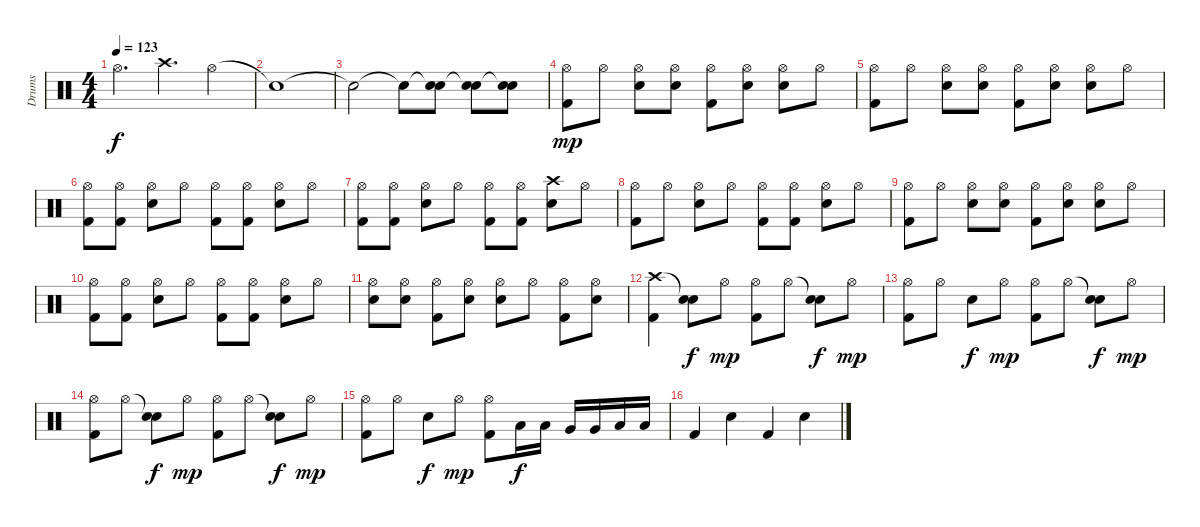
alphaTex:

\track ("Drums" "Drums") {instrument percussion}
\staff {score}
\articulation defaults
\ts (4 4)
\tempo 123
\clef neutral
\ks c "Hi-Hat (open)".4{d dy f} "Crash high (hit)".4{d} "Hi-Hat (open)".4
|
"Snare (hit)"{t}.1 |
"Snare (hit)"{t}.2 "Snare (hit)"{t}.8 ("Snare (hit)"{t} "Electric Snare (hit)").8 ("Snare (hit)"{t} "Electric Snare (hit)").8 ("Snare (hit)"{t} "Electric Snare (hit)").8 |
("Hi-Hat (open)" "Kick (hit) 2").8{dy mp} "Hi-Hat (open)".8 ("Hi-Hat (open)" "Electric Snare (hit)").8 ("Hi-Hat (open)" "Electric Snare (hit)").8 ("Hi-Hat (open)" "Kick (hit) 2").8 ("Hi-Hat (open)" "Electric Snare (hit)").8 ("Hi-Hat (open)" "Electric Snare (hit)").8 "Hi-Hat (open)".8 |
("Hi-Hat (open)" "Kick (hit) 2").8 "Hi-Hat (open)".8 ("Hi-Hat (open)" "Electric Snare (hit)").8 ("Hi-Hat (open)" "Electric Snare (hit)").8 ("Hi-Hat (open)" "Kick (hit) 2").8 ("Hi-Hat (open)" "Electric Snare (hit)").8 ("Hi-Hat (open)" "Electric Snare (hit)").8 "Hi-Hat (open)".8 |
("Hi-Hat (open)" "Kick (hit) 2").8 ("Hi-Hat (open)" "Kick (hit) 2").8 ("Hi-Hat (open)" "Electric Snare (hit)").8 "Hi-Hat (open)".8 ("Hi-Hat (open)" "Kick (hit) 2").8 ("Hi-Hat (open)" "Kick (hit) 2").8 ("Hi-Hat (open)" "Electric Snare (hit)").8 "Hi-Hat (open)".8 |
("Hi-Hat (open)" "Kick (hit) 2").8 ("Hi-Hat (open)" "Kick (hit) 2").8 ("Hi-Hat (open)" "Electric Snare (hit)").8 "Hi-Hat (open)".8 ("Hi-Hat (open)" "Kick (hit) 2").8 ("Hi-Hat (open)" "Kick (hit) 2").8 ("Crash high (hit)" "Electric Snare (hit)").8 "Hi-Hat (open)".8 |
("Hi-Hat (open)" "Kick (hit) 2").8 "Hi-Hat (open)".8 ("Hi-Hat (open)" "Electric Snare (hit)").8 "Hi-Hat (open)".8 ("Hi-Hat (open)" "Kick (hit) 2").8 ("Hi-Hat (open)" "Kick (hit) 2").8 ("Hi-Hat (open)" "Electric Snare (hit)").8 "Hi-Hat (open)".8 |
("Hi-Hat (open)" "Kick (hit) 2").8 "Hi-Hat (open)".8 ("Hi-Hat (open)" "Electric Snare (hit)").8 ("Hi-Hat (open)" "Electric Snare (hit)").8 ("Hi-Hat (open)" "Kick (hit) 2").8 ("Hi-Hat (open)" "Electric Snare (hit)").8 ("Hi-Hat (open)" "Electric Snare (hit)").8 "Hi-Hat (open)".8 |
("Hi-Hat (open)" "Kick (hit) 2").8 ("Hi-Hat (open)" "Kick (hit) 2").8 ("Hi-Hat (open)" "Electric Snare (hit)").8 "Hi-Hat (open)".8 ("Hi-Hat (open)" "Kick (hit) 2").8 ("Hi-Hat (open)" "Kick (hit) 2").8 ("Hi-Hat (open)" "Electric Snare (hit)").8 "Hi-Hat (open)".8 |
("Hi-Hat (open)" "Electric Snare (hit)").8 ("Hi-Hat (open)" "Electric Snare (hit)").8 ("Hi-Hat (open)" "Kick (hit) 2").8 ("Hi-Hat (open)" "Electric Snare (hit)").8 ("Hi-Hat (open)" "Electric Snare (hit)").8 "Hi-Hat (open)".8 ("Hi-Hat (open)" "Kick (hit) 2").8 ("Hi-Hat (open)" "Electric Snare (hit)").8 |
("Crash high (hit)" "Kick (hit) 2").4 ("Snare (hit)"{t} "Electric Snare (hit)").8{dy f} "Hi-Hat (open)".8{dy mp} ("Hi-Hat (open)" "Kick (hit) 2").8 "Hi-Hat (open)".8 ("Snare (hit)"{t} "Electric Snare (hit)").8{dy f} "Hi-Hat (open)".8{dy mp} |
("Hi-Hat (open)" "Kick (hit) 2").8 "Hi-Hat (open)".8 "Electric Snare (hit)".8{dy f} "Hi-Hat (open)".8{dy mp} ("Hi-Hat (open)" "Kick (hit) 2").8 "Hi-Hat (open)".8 ("Snare (hit)"{t} "Electric Snare (hit)").8{dy f} "Hi-Hat (open)".8{dy mp} |
("Hi-Hat (open)" "Kick (hit) 2").8 "Hi-Hat (open)".8 ("Snare (hit)"{t} "Electric Snare (hit)").8{dy f} "Hi-Hat (open)".8{dy mp} ("Hi-Hat (open)" "Kick (hit) 2").8 "Hi-Hat (open)".8 ("Snare (hit)"{t} "Electric Snare (hit)").8{dy f} "Hi-Hat (open)".8{dy mp} |
("Hi-Hat (open)" "Kick (hit) 2").8 "Hi-Hat (open)".8 "Electric Snare (hit)".8{dy f} "Hi-Hat (open)".8{dy mp} ("Hi-Hat (open)" "Kick (hit) 2").8 "Low Tom (hit)".16{dy f} "Low Tom (hit)".16 "Very Low Tom (hit)".16 "Very Low Tom (hit)".16 "Low Floor Tom (hit)".16 "Low Floor Tom (hit)".16 |
"Kick (hit) 2".4 "Electric Snare (hit)".4 "Kick (hit) 2".4 "Electric Snare (hit)".4
